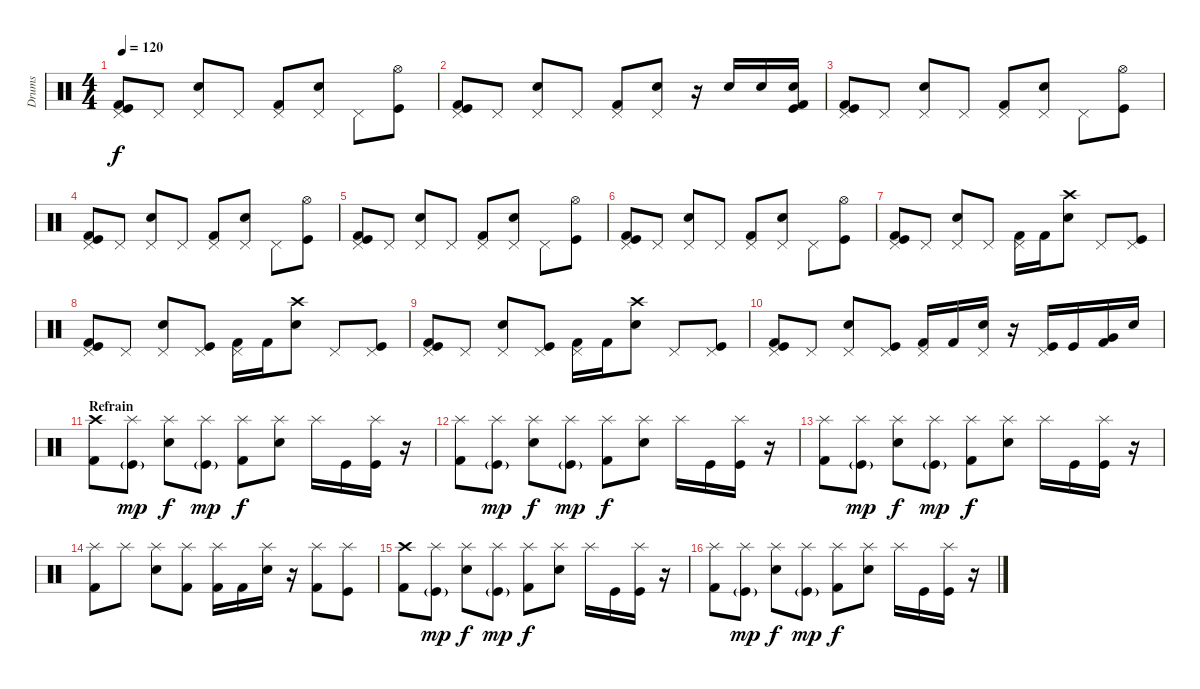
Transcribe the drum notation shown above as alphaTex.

\track ("Drums" "Drums") {instrument percussion}
\staff {score}
\articulation defaults
\ts (4 4)
\tempo 120
\clef neutral
\ks c
("Pedal Hi-Hat (hit)" "Kick (hit) 2" "Kick (hit)").8{dy f} "Pedal Hi-Hat (hit)".8 ("Pedal Hi-Hat (hit)" "Electric Snare (hit)").8 "Pedal Hi-Hat (hit)".8 ("Pedal Hi-Hat (hit)" "Kick (hit) 2").8 ("Pedal Hi-Hat (hit)" "Electric Snare (hit)").8 "Pedal Hi-Hat (hit)".8 ("Hi-Hat (open)" "Kick (hit)").8 |
("Pedal Hi-Hat (hit)" "Kick (hit) 2" "Kick (hit)").8 "Pedal Hi-Hat (hit)".8 ("Pedal Hi-Hat (hit)" "Electric Snare (hit)").8 "Pedal Hi-Hat (hit)".8 ("Pedal Hi-Hat (hit)" "Kick (hit) 2").8 ("Pedal Hi-Hat (hit)" "Electric Snare (hit)").8 r.16 "Electric Snare (hit)".16 "Electric Snare (hit)".16 ("Electric Snare (hit)" "Kick (hit)" "Kick (hit) 2").16 |
("Pedal Hi-Hat (hit)" "Kick (hit) 2" "Kick (hit)").8 "Pedal Hi-Hat (hit)".8 ("Pedal Hi-Hat (hit)" "Electric Snare (hit)").8 "Pedal Hi-Hat (hit)".8 ("Pedal Hi-Hat (hit)" "Kick (hit) 2").8 ("Pedal Hi-Hat (hit)" "Electric Snare (hit)").8 "Pedal Hi-Hat (hit)".8 ("Hi-Hat (open)" "Kick (hit)").8 |
("Pedal Hi-Hat (hit)" "Kick (hit) 2" "Kick (hit)").8 "Pedal Hi-Hat (hit)".8 ("Pedal Hi-Hat (hit)" "Electric Snare (hit)").8 "Pedal Hi-Hat (hit)".8 ("Pedal Hi-Hat (hit)" "Kick (hit) 2").8 ("Pedal Hi-Hat (hit)" "Electric Snare (hit)").8 "Pedal Hi-Hat (hit)".8 ("Hi-Hat (open)" "Kick (hit)").8 |
("Pedal Hi-Hat (hit)" "Kick (hit) 2" "Kick (hit)").8 "Pedal Hi-Hat (hit)".8 ("Pedal Hi-Hat (hit)" "Electric Snare (hit)").8 "Pedal Hi-Hat (hit)".8 ("Pedal Hi-Hat (hit)" "Kick (hit) 2").8 ("Pedal Hi-Hat (hit)" "Electric Snare (hit)").8 "Pedal Hi-Hat (hit)".8 ("Hi-Hat (open)" "Kick (hit)").8 |
("Pedal Hi-Hat (hit)" "Kick (hit) 2" "Kick (hit)").8 "Pedal Hi-Hat (hit)".8 ("Pedal Hi-Hat (hit)" "Electric Snare (hit)").8 "Pedal Hi-Hat (hit)".8 ("Pedal Hi-Hat (hit)" "Kick (hit) 2").8 ("Pedal Hi-Hat (hit)" "Electric Snare (hit)").8 "Pedal Hi-Hat (hit)".8 ("Hi-Hat (open)" "Kick (hit)").8 |
("Pedal Hi-Hat (hit)" "Kick (hit) 2" "Kick (hit)").8 "Pedal Hi-Hat (hit)".8 ("Pedal Hi-Hat (hit)" "Electric Snare (hit)").8 "Pedal Hi-Hat (hit)".8 ("Pedal Hi-Hat (hit)" "Kick (hit) 2").16 "Kick (hit) 2".16 ("Crash high (hit)" "Electric Snare (hit)").8 "Pedal Hi-Hat (hit)".8 ("Pedal Hi-Hat (hit)" "Kick (hit)").8 |
("Pedal Hi-Hat (hit)" "Kick (hit) 2" "Kick (hit)").8 "Pedal Hi-Hat (hit)".8 ("Pedal Hi-Hat (hit)" "Electric Snare (hit)").8 ("Pedal Hi-Hat (hit)" "Kick (hit)").8 ("Pedal Hi-Hat (hit)" "Kick (hit) 2").16 "Kick (hit) 2".16 ("Crash high (hit)" "Electric Snare (hit)").8 "Pedal Hi-Hat (hit)".8 ("Pedal Hi-Hat (hit)" "Kick (hit)").8 |
("Pedal Hi-Hat (hit)" "Kick (hit) 2" "Kick (hit)").8 "Pedal Hi-Hat (hit)".8 ("Pedal Hi-Hat (hit)" "Electric Snare (hit)").8 ("Pedal Hi-Hat (hit)" "Kick (hit)").8 ("Pedal Hi-Hat (hit)" "Kick (hit) 2").16 "Kick (hit) 2".16 ("Crash high (hit)" "Electric Snare (hit)").8 "Pedal Hi-Hat (hit)".8 ("Pedal Hi-Hat (hit)" "Kick (hit)").8 |
("Pedal Hi-Hat (hit)" "Kick (hit) 2" "Kick (hit)").8 "Pedal Hi-Hat (hit)".8 ("Pedal Hi-Hat (hit)" "Electric Snare (hit)").8 ("Pedal Hi-Hat (hit)" "Kick (hit)").8 ("Pedal Hi-Hat (hit)" "Kick (hit) 2").16 "Kick (hit) 2".16 ("Pedal Hi-Hat (hit)" "Electric Snare (hit)").16 r.16 ("Pedal Hi-Hat (hit)" "Kick (hit)").16 "Kick (hit)".16 ("Kick (hit) 2" "Very Low Tom (hit)").16 "Electric Snare (hit)".16 |
\section ("" "Refrain")
("Crash high (hit)" "Kick (hit) 2").8 ("Splash (hit)" "Kick (hit)"{g}).8{dy mp} ("Splash (hit)" "Electric Snare (hit)").8{dy f} ("Splash (hit)" "Kick (hit)"{g}).8{dy mp} ("Splash (hit)" "Kick (hit) 2").8{dy f} ("Splash (hit)" "Electric Snare (hit)").8 "Splash (hit)".16 "Kick (hit)".16 ("Splash (hit)" "Kick (hit)").16 r.16 |
("Splash (hit)" "Kick (hit) 2").8 ("Splash (hit)" "Kick (hit)"{g}).8{dy mp} ("Splash (hit)" "Electric Snare (hit)").8{dy f} ("Splash (hit)" "Kick (hit)"{g}).8{dy mp} ("Splash (hit)" "Kick (hit) 2").8{dy f} ("Splash (hit)" "Electric Snare (hit)").8 "Splash (hit)".16 "Kick (hit)".16 ("Splash (hit)" "Kick (hit)").16 r.16 |
("Splash (hit)" "Kick (hit) 2").8 ("Splash (hit)" "Kick (hit)"{g}).8{dy mp} ("Splash (hit)" "Electric Snare (hit)").8{dy f} ("Splash (hit)" "Kick (hit)"{g}).8{dy mp} ("Splash (hit)" "Kick (hit) 2").8{dy f} ("Splash (hit)" "Electric Snare (hit)").8 "Splash (hit)".16 "Kick (hit)".16 ("Splash (hit)" "Kick (hit)").16 r.16 |
("Splash (hit)" "Kick (hit) 2").8 "Splash (hit)".8 ("Splash (hit)" "Electric Snare (hit)").8 ("Splash (hit)" "Kick (hit) 2").8 ("Splash (hit)" "Kick (hit) 2").16 "Kick (hit) 2".16 ("Splash (hit)" "Electric Snare (hit)").16 r.16 ("Splash (hit)" "Kick (hit) 2").8 ("Splash (hit)" "Kick (hit)").8 |
("Crash high (hit)" "Kick (hit) 2").8 ("Splash (hit)" "Kick (hit)"{g}).8{dy mp} ("Splash (hit)" "Electric Snare (hit)").8{dy f} ("Splash (hit)" "Kick (hit)"{g}).8{dy mp} ("Splash (hit)" "Kick (hit) 2").8{dy f} ("Splash (hit)" "Electric Snare (hit)").8 "Splash (hit)".16 "Kick (hit)".16 ("Splash (hit)" "Kick (hit)").16 r.16 |
("Splash (hit)" "Kick (hit) 2").8 ("Splash (hit)" "Kick (hit)"{g}).8{dy mp} ("Splash (hit)" "Electric Snare (hit)").8{dy f} ("Splash (hit)" "Kick (hit)"{g}).8{dy mp} ("Splash (hit)" "Kick (hit) 2").8{dy f} ("Splash (hit)" "Electric Snare (hit)").8 "Splash (hit)".16 "Kick (hit)".16 ("Splash (hit)" "Kick (hit)").16 r.16
